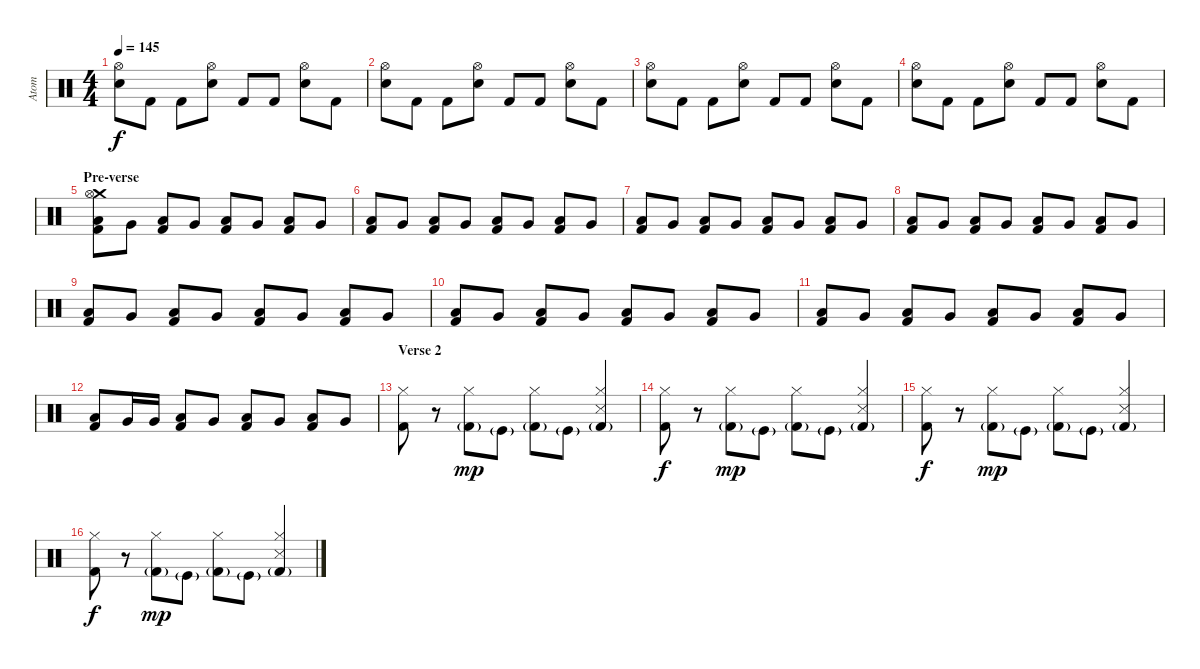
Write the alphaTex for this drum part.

\track ("Atom" "Atom") {instrument percussion}
\staff {score}
\articulation defaults
\ts (4 4)
\tempo 145
\clef neutral
\ks c
("Electric Snare (hit)" "Hi-Hat (open)").8{dy f volume 16} "Kick (hit) 2".8 "Kick (hit) 2".8 ("Electric Snare (hit)" "Hi-Hat (open)").8 "Kick (hit) 2".8 "Kick (hit) 2".8 ("Electric Snare (hit)" "Hi-Hat (open)").8 "Kick (hit) 2".8 |
("Electric Snare (hit)" "Hi-Hat (open)").8{volume 16} "Kick (hit) 2".8 "Kick (hit) 2".8 ("Electric Snare (hit)" "Hi-Hat (open)").8 "Kick (hit) 2".8 "Kick (hit) 2".8 ("Electric Snare (hit)" "Hi-Hat (open)").8 "Kick (hit) 2".8 |
("Electric Snare (hit)" "Hi-Hat (open)").8{volume 16} "Kick (hit) 2".8 "Kick (hit) 2".8 ("Electric Snare (hit)" "Hi-Hat (open)").8 "Kick (hit) 2".8 "Kick (hit) 2".8 ("Electric Snare (hit)" "Hi-Hat (open)").8 "Kick (hit) 2".8 |
("Electric Snare (hit)" "Hi-Hat (open)").8{volume 16} "Kick (hit) 2".8 "Kick (hit) 2".8 ("Electric Snare (hit)" "Hi-Hat (open)").8 "Kick (hit) 2".8 "Kick (hit) 2".8 ("Electric Snare (hit)" "Hi-Hat (open)").8 "Kick (hit) 2".8 |
\section ("" "Pre-verse")
("Crash medium (hit)" "Hi-Hat (open)" "Kick (hit) 2" "Low Tom (hit)").8 "Very Low Tom (hit)".8 ("Kick (hit) 2" "Low Floor Tom (hit)").8 "Very Low Tom (hit)".8 ("Kick (hit) 2" "Low Tom (hit)").8 "Very Low Tom (hit)".8 ("Kick (hit) 2" "Low Floor Tom (hit)").8 "Very Low Tom (hit)".8 |
("Kick (hit) 2" "Low Tom (hit)").8 "Very Low Tom (hit)".8 ("Kick (hit) 2" "Low Floor Tom (hit)").8 "Very Low Tom (hit)".8 ("Kick (hit) 2" "Low Tom (hit)").8 "Very Low Tom (hit)".8 ("Kick (hit) 2" "Low Floor Tom (hit)").8 "Very Low Tom (hit)".8 |
("Kick (hit) 2" "Low Tom (hit)").8 "Very Low Tom (hit)".8 ("Kick (hit) 2" "Low Floor Tom (hit)").8 "Very Low Tom (hit)".8 ("Kick (hit) 2" "Low Tom (hit)").8 "Very Low Tom (hit)".8 ("Kick (hit) 2" "Low Floor Tom (hit)").8 "Very Low Tom (hit)".8 |
("Kick (hit) 2" "Low Tom (hit)").8 "Very Low Tom (hit)".8 ("Kick (hit) 2" "Low Floor Tom (hit)").8 "Very Low Tom (hit)".8 ("Kick (hit) 2" "Low Tom (hit)").8 "Very Low Tom (hit)".8 ("Kick (hit) 2" "Low Floor Tom (hit)").8 "Very Low Tom (hit)".8 |
("Kick (hit) 2" "Low Tom (hit)").8 "Very Low Tom (hit)".8 ("Kick (hit) 2" "Low Floor Tom (hit)").8 "Very Low Tom (hit)".8 ("Kick (hit) 2" "Low Tom (hit)").8 "Very Low Tom (hit)".8 ("Kick (hit) 2" "Low Floor Tom (hit)").8 "Very Low Tom (hit)".8 |
("Kick (hit) 2" "Low Tom (hit)").8 "Very Low Tom (hit)".8 ("Kick (hit) 2" "Low Floor Tom (hit)").8 "Very Low Tom (hit)".8 ("Kick (hit) 2" "Low Tom (hit)").8 "Very Low Tom (hit)".8 ("Kick (hit) 2" "Low Floor Tom (hit)").8 "Very Low Tom (hit)".8 |
("Kick (hit) 2" "Low Tom (hit)").8 "Very Low Tom (hit)".8 ("Kick (hit) 2" "Low Floor Tom (hit)").8 "Very Low Tom (hit)".8 ("Kick (hit) 2" "Low Tom (hit)").8 "Very Low Tom (hit)".8 ("Kick (hit) 2" "Low Floor Tom (hit)").8 "Very Low Tom (hit)".8 |
("Kick (hit) 2" "Low Tom (hit)").8 "Very Low Tom (hit)".16 "Very Low Tom (hit)".16 ("Kick (hit) 2" "Low Floor Tom (hit)").8 "Very Low Tom (hit)".8 ("Kick (hit) 2" "Low Tom (hit)").8 "Very Low Tom (hit)".8 ("Kick (hit) 2" "Low Floor Tom (hit)").8 "Very Low Tom (hit)".8 |
\section ("" "Verse 2")
("Hi-Hat (closed)" "Kick (hit) 2").8 r.8 ("Hi-Hat (closed)" "Kick (hit) 2"{g}).8{dy mp} "Kick (hit)"{g}.8 ("Hi-Hat (closed)" "Kick (hit) 2"{g}).8 "Kick (hit)"{g}.8 ("Snare (side stick) 3" "Hi-Hat (closed)" "Kick (hit) 2"{g}).4 |
("Hi-Hat (closed)" "Kick (hit) 2").8{dy f} r.8 ("Hi-Hat (closed)" "Kick (hit) 2"{g}).8{dy mp} "Kick (hit)"{g}.8 ("Hi-Hat (closed)" "Kick (hit) 2"{g}).8 "Kick (hit)"{g}.8 ("Snare (side stick) 3" "Hi-Hat (closed)" "Kick (hit) 2"{g}).4 |
("Hi-Hat (closed)" "Kick (hit) 2").8{dy f} r.8 ("Hi-Hat (closed)" "Kick (hit) 2"{g}).8{dy mp} "Kick (hit)"{g}.8 ("Hi-Hat (closed)" "Kick (hit) 2"{g}).8 "Kick (hit)"{g}.8 ("Snare (side stick) 3" "Hi-Hat (closed)" "Kick (hit) 2"{g}).4 |
("Hi-Hat (closed)" "Kick (hit) 2").8{dy f} r.8 ("Hi-Hat (closed)" "Kick (hit) 2"{g}).8{dy mp} "Kick (hit)"{g}.8 ("Hi-Hat (closed)" "Kick (hit) 2"{g}).8 "Kick (hit)"{g}.8 ("Snare (side stick) 3" "Hi-Hat (closed)" "Kick (hit) 2"{g}).4
